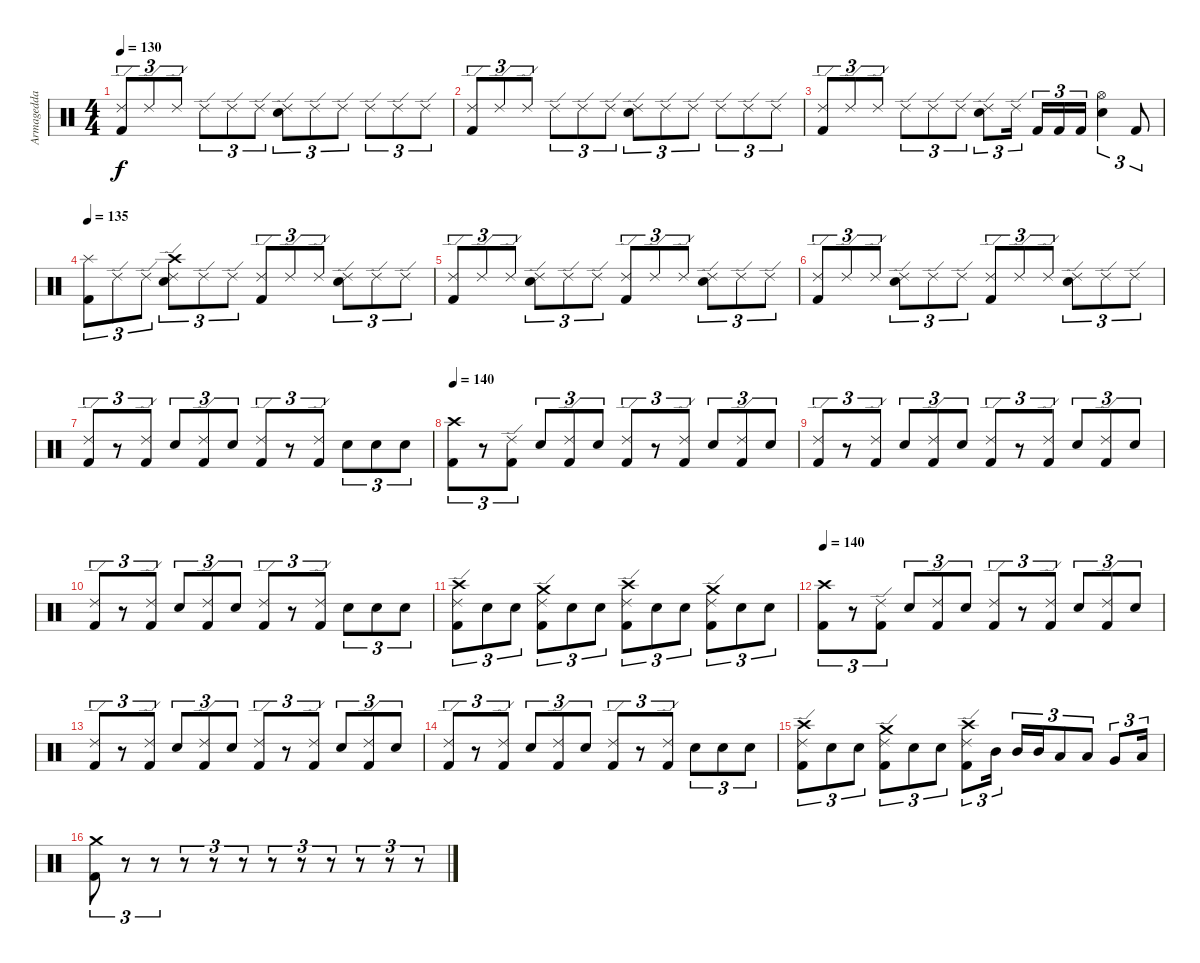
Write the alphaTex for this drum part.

\track ("Armagedda" "Armagedda") {instrument percussion}
\staff {score}
\articulation defaults
\ts (4 4)
\tempo 130
\clef neutral
\ks c
("Ride (edge) 2" "Kick (hit) 2").8{tu (3 2) dy f} "Ride (edge) 2".8{tu (3 2)} "Ride (edge) 2".8{tu (3 2)} "Ride (edge) 2".8{tu (3 2)} "Ride (edge) 2".8{tu (3 2)} "Ride (edge) 2".8{tu (3 2)} ("Ride (edge) 2" "Electric Snare (hit)").8{tu (3 2)} "Ride (edge) 2".8{tu (3 2)} "Ride (edge) 2".8{tu (3 2)} "Ride (edge) 2".8{tu (3 2)} "Ride (edge) 2".8{tu (3 2)} "Ride (edge) 2".8{tu (3 2)} |
("Ride (edge) 2" "Kick (hit) 2").8{tu (3 2)} "Ride (edge) 2".8{tu (3 2)} "Ride (edge) 2".8{tu (3 2)} "Ride (edge) 2".8{tu (3 2)} "Ride (edge) 2".8{tu (3 2)} "Ride (edge) 2".8{tu (3 2)} ("Ride (edge) 2" "Electric Snare (hit)").8{tu (3 2)} "Ride (edge) 2".8{tu (3 2)} "Ride (edge) 2".8{tu (3 2)} "Ride (edge) 2".8{tu (3 2)} "Ride (edge) 2".8{tu (3 2)} "Ride (edge) 2".8{tu (3 2)} |
("Ride (edge) 2" "Kick (hit) 2").8{tu (3 2)} "Ride (edge) 2".8{tu (3 2)} "Ride (edge) 2".8{tu (3 2)} "Ride (edge) 2".8{tu (3 2)} "Ride (edge) 2".8{tu (3 2)} "Ride (edge) 2".8{tu (3 2)} ("Ride (edge) 2" "Electric Snare (hit)").8{tu (3 2)} "Ride (edge) 2".16{tu (3 2)} "Kick (hit) 2".16{tu (3 2)} "Kick (hit) 2".16{tu (3 2)} "Kick (hit) 2".16{tu (3 2)} ("Hi-Hat (open)" "Electric Snare (hit)").4{tu (3 2)} "Kick (hit) 2".8{tu (3 2)} |
\tempo 135
("Splash (hit)" "Kick (hit) 2").8{tu (3 2)} "Ride (edge) 2".8{tu (3 2)} "Ride (edge) 2".8{tu (3 2)} ("Crash high (hit)" "Ride (edge) 2" "Electric Snare (hit)").8{tu (3 2)} "Ride (edge) 2".8{tu (3 2)} "Ride (edge) 2".8{tu (3 2)} ("Ride (edge) 2" "Kick (hit) 2").8{tu (3 2)} "Ride (edge) 2".8{tu (3 2)} "Ride (edge) 2".8{tu (3 2)} ("Ride (edge) 2" "Electric Snare (hit)").8{tu (3 2)} "Ride (edge) 2".8{tu (3 2)} "Ride (edge) 2".8{tu (3 2)} |
("Ride (edge) 2" "Kick (hit) 2").8{tu (3 2)} "Ride (edge) 2".8{tu (3 2)} "Ride (edge) 2".8{tu (3 2)} ("Ride (edge) 2" "Electric Snare (hit)").8{tu (3 2)} "Ride (edge) 2".8{tu (3 2)} "Ride (edge) 2".8{tu (3 2)} ("Ride (edge) 2" "Kick (hit) 2").8{tu (3 2)} "Ride (edge) 2".8{tu (3 2)} "Ride (edge) 2".8{tu (3 2)} ("Ride (edge) 2" "Electric Snare (hit)").8{tu (3 2)} "Ride (edge) 2".8{tu (3 2)} "Ride (edge) 2".8{tu (3 2)} |
("Ride (edge) 2" "Kick (hit) 2").8{tu (3 2)} "Ride (edge) 2".8{tu (3 2)} "Ride (edge) 2".8{tu (3 2)} ("Ride (edge) 2" "Electric Snare (hit)").8{tu (3 2)} "Ride (edge) 2".8{tu (3 2)} "Ride (edge) 2".8{tu (3 2)} ("Ride (edge) 2" "Kick (hit) 2").8{tu (3 2)} "Ride (edge) 2".8{tu (3 2)} "Ride (edge) 2".8{tu (3 2)} ("Ride (edge) 2" "Electric Snare (hit)").8{tu (3 2)} "Ride (edge) 2".8{tu (3 2)} "Ride (edge) 2".8{tu (3 2)} |
("Ride (edge) 2" "Kick (hit) 2").8{tu (3 2)} r.8{tu (3 2)} ("Ride (edge) 2" "Kick (hit) 2").8{tu (3 2)} "Electric Snare (hit)".8{tu (3 2)} ("Ride (edge) 2" "Kick (hit) 2").8{tu (3 2)} "Electric Snare (hit)".8{tu (3 2)} ("Ride (edge) 2" "Kick (hit) 2").8{tu (3 2)} r.8{tu (3 2)} ("Ride (edge) 2" "Kick (hit) 2").8{tu (3 2)} "Electric Snare (hit)".8{tu (3 2)} "Electric Snare (hit)".8{tu (3 2)} "Electric Snare (hit)".8{tu (3 2)} |
\tempo 140
("Crash high (hit)" "Kick (hit) 2").8{tu (3 2)} r.8{tu (3 2)} ("Ride (edge) 2" "Kick (hit) 2").8{tu (3 2)} "Electric Snare (hit)".8{tu (3 2)} ("Ride (edge) 2" "Kick (hit) 2").8{tu (3 2)} "Electric Snare (hit)".8{tu (3 2)} ("Ride (edge) 2" "Kick (hit) 2").8{tu (3 2)} r.8{tu (3 2)} ("Ride (edge) 2" "Kick (hit) 2").8{tu (3 2)} "Electric Snare (hit)".8{tu (3 2)} ("Ride (edge) 2" "Kick (hit) 2").8{tu (3 2)} "Electric Snare (hit)".8{tu (3 2)} |
("Ride (edge) 2" "Kick (hit) 2").8{tu (3 2)} r.8{tu (3 2)} ("Ride (edge) 2" "Kick (hit) 2").8{tu (3 2)} "Electric Snare (hit)".8{tu (3 2)} ("Ride (edge) 2" "Kick (hit) 2").8{tu (3 2)} "Electric Snare (hit)".8{tu (3 2)} ("Ride (edge) 2" "Kick (hit) 2").8{tu (3 2)} r.8{tu (3 2)} ("Ride (edge) 2" "Kick (hit) 2").8{tu (3 2)} "Electric Snare (hit)".8{tu (3 2)} ("Ride (edge) 2" "Kick (hit) 2").8{tu (3 2)} "Electric Snare (hit)".8{tu (3 2)} |
("Ride (edge) 2" "Kick (hit) 2").8{tu (3 2)} r.8{tu (3 2)} ("Ride (edge) 2" "Kick (hit) 2").8{tu (3 2)} "Electric Snare (hit)".8{tu (3 2)} ("Ride (edge) 2" "Kick (hit) 2").8{tu (3 2)} "Electric Snare (hit)".8{tu (3 2)} ("Ride (edge) 2" "Kick (hit) 2").8{tu (3 2)} r.8{tu (3 2)} ("Ride (edge) 2" "Kick (hit) 2").8{tu (3 2)} "Electric Snare (hit)".8{tu (3 2)} "Electric Snare (hit)".8{tu (3 2)} "Electric Snare (hit)".8{tu (3 2)} |
("Crash high (hit)" "Ride (edge) 2" "Kick (hit) 2").8{tu (3 2)} "Electric Snare (hit)".8{tu (3 2)} "Electric Snare (hit)".8{tu (3 2)} ("Crash medium (hit)" "Ride (edge) 2" "Kick (hit) 2").8{tu (3 2)} "Electric Snare (hit)".8{tu (3 2)} "Electric Snare (hit)".8{tu (3 2)} ("Crash high (hit)" "Ride (edge) 2" "Kick (hit) 2").8{tu (3 2)} "Electric Snare (hit)".8{tu (3 2)} "Electric Snare (hit)".8{tu (3 2)} ("Crash medium (hit)" "Ride (edge) 2" "Kick (hit) 2").8{tu (3 2)} "Electric Snare (hit)".8{tu (3 2)} "Electric Snare (hit)".8{tu (3 2)} |
\tempo 140
("Crash high (hit)" "Kick (hit) 2").8{tu (3 2)} r.8{tu (3 2)} ("Ride (edge) 2" "Kick (hit) 2").8{tu (3 2)} "Electric Snare (hit)".8{tu (3 2)} ("Ride (edge) 2" "Kick (hit) 2").8{tu (3 2)} "Electric Snare (hit)".8{tu (3 2)} ("Ride (edge) 2" "Kick (hit) 2").8{tu (3 2)} r.8{tu (3 2)} ("Ride (edge) 2" "Kick (hit) 2").8{tu (3 2)} "Electric Snare (hit)".8{tu (3 2)} ("Ride (edge) 2" "Kick (hit) 2").8{tu (3 2)} "Electric Snare (hit)".8{tu (3 2)} |
("Ride (edge) 2" "Kick (hit) 2").8{tu (3 2)} r.8{tu (3 2)} ("Ride (edge) 2" "Kick (hit) 2").8{tu (3 2)} "Electric Snare (hit)".8{tu (3 2)} ("Ride (edge) 2" "Kick (hit) 2").8{tu (3 2)} "Electric Snare (hit)".8{tu (3 2)} ("Ride (edge) 2" "Kick (hit) 2").8{tu (3 2)} r.8{tu (3 2)} ("Ride (edge) 2" "Kick (hit) 2").8{tu (3 2)} "Electric Snare (hit)".8{tu (3 2)} ("Ride (edge) 2" "Kick (hit) 2").8{tu (3 2)} "Electric Snare (hit)".8{tu (3 2)} |
("Ride (edge) 2" "Kick (hit) 2").8{tu (3 2)} r.8{tu (3 2)} ("Ride (edge) 2" "Kick (hit) 2").8{tu (3 2)} "Electric Snare (hit)".8{tu (3 2)} ("Ride (edge) 2" "Kick (hit) 2").8{tu (3 2)} "Electric Snare (hit)".8{tu (3 2)} ("Ride (edge) 2" "Kick (hit) 2").8{tu (3 2)} r.8{tu (3 2)} ("Ride (edge) 2" "Kick (hit) 2").8{tu (3 2)} "Electric Snare (hit)".8{tu (3 2)} "Electric Snare (hit)".8{tu (3 2)} "Electric Snare (hit)".8{tu (3 2)} |
("Crash high (hit)" "Ride (edge) 2" "Kick (hit) 2").8{tu (3 2)} "Electric Snare (hit)".8{tu (3 2)} "Electric Snare (hit)".8{tu (3 2)} ("Crash medium (hit)" "Ride (edge) 2" "Kick (hit) 2").8{tu (3 2)} "Electric Snare (hit)".8{tu (3 2)} "Electric Snare (hit)".8{tu (3 2)} ("Crash high (hit)" "Ride (edge) 2" "Kick (hit) 2").8{tu (3 2)} "Mid Tom (hit)".16{tu (3 2)} "Mid Tom (hit)".16{tu (3 2)} "Mid Tom (hit)".16{tu (3 2)} "Low Tom (hit)".8{tu (3 2)} "Low Tom (hit)".8{tu (3 2)} "Very Low Tom (hit)".8{tu (3 2)} "Low Floor Tom (hit)".16{tu (3 2)} |
("Crash medium (hit)" "Kick (hit) 2").8{tu (3 2)} r.8{tu (3 2)} r.8{tu (3 2)} r.8{tu (3 2)} r.8{tu (3 2)} r.8{tu (3 2)} r.8{tu (3 2)} r.8{tu (3 2)} r.8{tu (3 2)} r.8{tu (3 2)} r.8{tu (3 2)} r.8{tu (3 2)}
